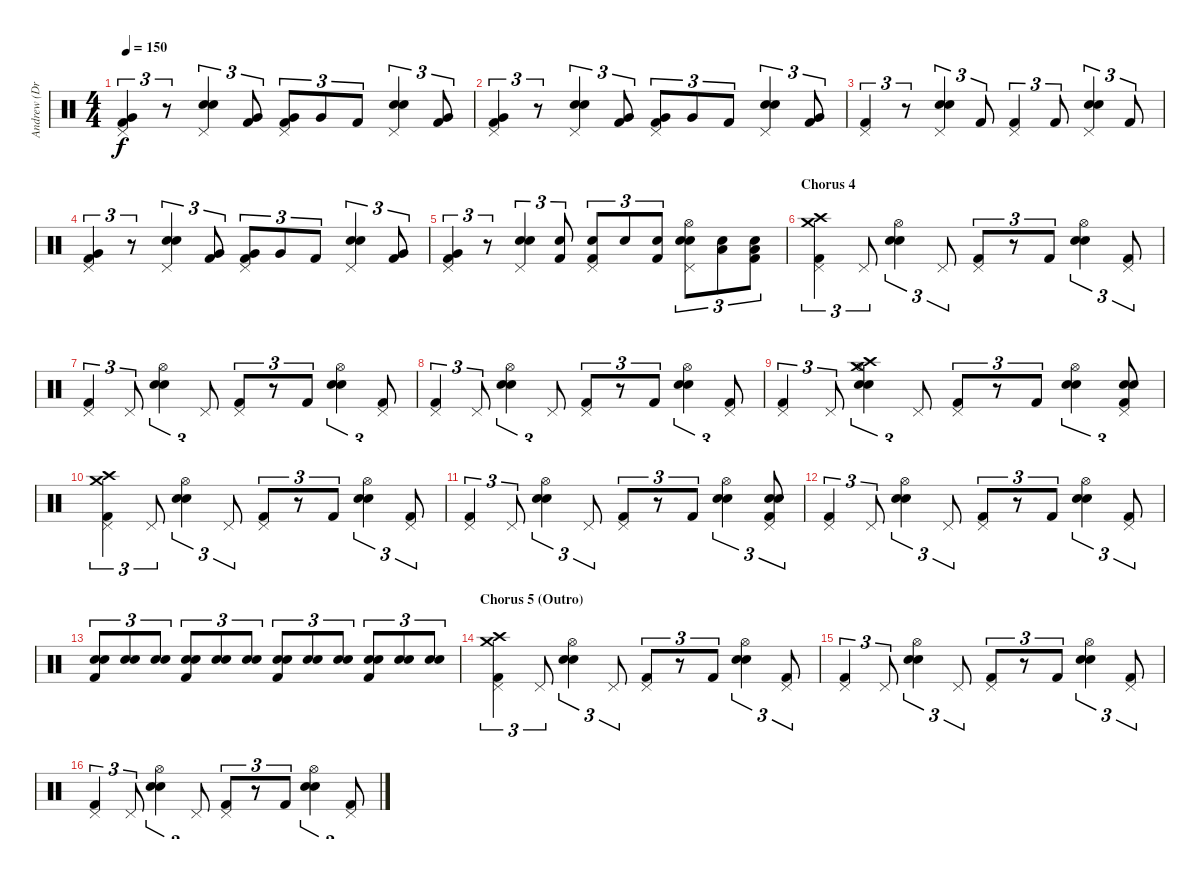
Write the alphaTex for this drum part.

\track ("Andrew (Drums)" "Andrew (Dr") {instrument percussion}
\staff {score}
\articulation defaults
\ts (4 4)
\tempo 150
\clef neutral
\ks c
("Kick (hit) 2" "Pedal Hi-Hat (hit)" "Very Low Tom (hit)").4{tu (3 2) dy f} r.8{tu (3 2)} ("Electric Snare (hit)" "Snare (hit) 2" "Pedal Hi-Hat (hit)").4{tu (3 2)} ("Kick (hit) 2" "Very Low Tom (hit)").8{tu (3 2)} ("Kick (hit) 2" "Pedal Hi-Hat (hit)" "Very Low Tom (hit)").8{tu (3 2)} "Very Low Tom (hit)".8{tu (3 2)} "Kick (hit) 2".8{tu (3 2)} ("Electric Snare (hit)" "Snare (hit) 2" "Pedal Hi-Hat (hit)").4{tu (3 2)} ("Kick (hit) 2" "Very Low Tom (hit)").8{tu (3 2)} |
("Kick (hit) 2" "Pedal Hi-Hat (hit)" "Very Low Tom (hit)").4{tu (3 2)} r.8{tu (3 2)} ("Electric Snare (hit)" "Snare (hit) 2" "Pedal Hi-Hat (hit)").4{tu (3 2)} ("Kick (hit) 2" "Very Low Tom (hit)").8{tu (3 2)} ("Kick (hit) 2" "Pedal Hi-Hat (hit)" "Very Low Tom (hit)").8{tu (3 2)} "Very Low Tom (hit)".8{tu (3 2)} "Kick (hit) 2".8{tu (3 2)} ("Electric Snare (hit)" "Snare (hit) 2" "Pedal Hi-Hat (hit)").4{tu (3 2)} ("Kick (hit) 2" "Very Low Tom (hit)").8{tu (3 2)} |
("Kick (hit) 2" "Pedal Hi-Hat (hit)").4{tu (3 2)} r.8{tu (3 2)} ("Electric Snare (hit)" "Snare (hit) 2" "Pedal Hi-Hat (hit)").4{tu (3 2)} "Kick (hit) 2".8{tu (3 2)} ("Kick (hit) 2" "Pedal Hi-Hat (hit)").4{tu (3 2)} "Kick (hit) 2".8{tu (3 2)} ("Electric Snare (hit)" "Snare (hit) 2" "Pedal Hi-Hat (hit)").4{tu (3 2)} "Kick (hit) 2".8{tu (3 2)} |
("Kick (hit) 2" "Pedal Hi-Hat (hit)" "Very Low Tom (hit)").4{tu (3 2)} r.8{tu (3 2)} ("Electric Snare (hit)" "Snare (hit) 2" "Pedal Hi-Hat (hit)").4{tu (3 2)} ("Kick (hit) 2" "Very Low Tom (hit)").8{tu (3 2)} ("Kick (hit) 2" "Pedal Hi-Hat (hit)" "Very Low Tom (hit)").8{tu (3 2)} "Very Low Tom (hit)".8{tu (3 2)} "Kick (hit) 2".8{tu (3 2)} ("Electric Snare (hit)" "Snare (hit) 2" "Pedal Hi-Hat (hit)").4{tu (3 2)} ("Kick (hit) 2" "Very Low Tom (hit)").8{tu (3 2)} |
("Kick (hit) 2" "Pedal Hi-Hat (hit)" "Very Low Tom (hit)").4{tu (3 2)} r.8{tu (3 2)} ("Electric Snare (hit)" "Snare (hit) 2" "Pedal Hi-Hat (hit)").4{tu (3 2)} ("Kick (hit) 2" "Electric Snare (hit)").8{tu (3 2)} ("Kick (hit) 2" "Pedal Hi-Hat (hit)" "Electric Snare (hit)").8{tu (3 2)} "Electric Snare (hit)".8{tu (3 2)} ("Kick (hit) 2" "Electric Snare (hit)").8{tu (3 2)} ("Electric Snare (hit)" "Snare (hit) 2" "Pedal Hi-Hat (hit)" "Hi-Hat (open)").8{tu (3 2)} ("Electric Snare (hit)" "Low Tom (hit)").8{tu (3 2)} ("Kick (hit) 2" "Electric Snare (hit)" "Low Floor Tom (hit)").8{tu (3 2)} |
\section ("" "Chorus 4")
("Kick (hit) 2" "Pedal Hi-Hat (hit)" "Crash medium (hit)" "Crash high (hit)").4{tu (3 2)} "Pedal Hi-Hat (hit)".8{tu (3 2)} ("Electric Snare (hit)" "Snare (hit) 2" "Hi-Hat (open)").4{tu (3 2)} "Pedal Hi-Hat (hit)".8{tu (3 2)} ("Kick (hit) 2" "Pedal Hi-Hat (hit)").8{tu (3 2)} r.8{tu (3 2)} "Kick (hit) 2".8{tu (3 2)} ("Electric Snare (hit)" "Snare (hit) 2" "Hi-Hat (open)").4{tu (3 2)} ("Kick (hit) 2" "Pedal Hi-Hat (hit)").8{tu (3 2)} |
("Kick (hit) 2" "Pedal Hi-Hat (hit)").4{tu (3 2)} "Pedal Hi-Hat (hit)".8{tu (3 2)} ("Electric Snare (hit)" "Snare (hit) 2" "Hi-Hat (open)").4{tu (3 2)} "Pedal Hi-Hat (hit)".8{tu (3 2)} ("Kick (hit) 2" "Pedal Hi-Hat (hit)").8{tu (3 2)} r.8{tu (3 2)} "Kick (hit) 2".8{tu (3 2)} ("Electric Snare (hit)" "Snare (hit) 2" "Hi-Hat (open)").4{tu (3 2)} ("Kick (hit) 2" "Pedal Hi-Hat (hit)").8{tu (3 2)} |
("Kick (hit) 2" "Pedal Hi-Hat (hit)").4{tu (3 2)} "Pedal Hi-Hat (hit)".8{tu (3 2)} ("Electric Snare (hit)" "Snare (hit) 2" "Hi-Hat (open)").4{tu (3 2)} "Pedal Hi-Hat (hit)".8{tu (3 2)} ("Kick (hit) 2" "Pedal Hi-Hat (hit)").8{tu (3 2)} r.8{tu (3 2)} "Kick (hit) 2".8{tu (3 2)} ("Electric Snare (hit)" "Snare (hit) 2" "Hi-Hat (open)").4{tu (3 2)} ("Kick (hit) 2" "Pedal Hi-Hat (hit)").8{tu (3 2)} |
("Kick (hit) 2" "Pedal Hi-Hat (hit)").4{tu (3 2)} "Pedal Hi-Hat (hit)".8{tu (3 2)} ("Electric Snare (hit)" "Snare (hit) 2" "Hi-Hat (open)" "Crash medium (hit)" "Crash high (hit)").4{tu (3 2)} "Pedal Hi-Hat (hit)".8{tu (3 2)} ("Kick (hit) 2" "Pedal Hi-Hat (hit)").8{tu (3 2)} r.8{tu (3 2)} "Kick (hit) 2".8{tu (3 2)} ("Electric Snare (hit)" "Snare (hit) 2" "Hi-Hat (open)").4{tu (3 2)} ("Kick (hit) 2" "Electric Snare (hit)" "Pedal Hi-Hat (hit)" "Snare (hit) 2").8{tu (3 2)} |
("Kick (hit) 2" "Pedal Hi-Hat (hit)" "Crash medium (hit)" "Crash high (hit)").4{tu (3 2)} "Pedal Hi-Hat (hit)".8{tu (3 2)} ("Electric Snare (hit)" "Snare (hit) 2" "Hi-Hat (open)").4{tu (3 2)} "Pedal Hi-Hat (hit)".8{tu (3 2)} ("Kick (hit) 2" "Pedal Hi-Hat (hit)").8{tu (3 2)} r.8{tu (3 2)} "Kick (hit) 2".8{tu (3 2)} ("Electric Snare (hit)" "Snare (hit) 2" "Hi-Hat (open)").4{tu (3 2)} ("Kick (hit) 2" "Pedal Hi-Hat (hit)").8{tu (3 2)} |
("Kick (hit) 2" "Pedal Hi-Hat (hit)").4{tu (3 2)} "Pedal Hi-Hat (hit)".8{tu (3 2)} ("Electric Snare (hit)" "Snare (hit) 2" "Hi-Hat (open)").4{tu (3 2)} "Pedal Hi-Hat (hit)".8{tu (3 2)} ("Kick (hit) 2" "Pedal Hi-Hat (hit)").8{tu (3 2)} r.8{tu (3 2)} "Kick (hit) 2".8{tu (3 2)} ("Electric Snare (hit)" "Snare (hit) 2" "Hi-Hat (open)").4{tu (3 2)} ("Kick (hit) 2" "Electric Snare (hit)" "Pedal Hi-Hat (hit)" "Snare (hit) 2").8{tu (3 2)} |
("Kick (hit) 2" "Pedal Hi-Hat (hit)").4{tu (3 2)} "Pedal Hi-Hat (hit)".8{tu (3 2)} ("Electric Snare (hit)" "Snare (hit) 2" "Hi-Hat (open)").4{tu (3 2)} "Pedal Hi-Hat (hit)".8{tu (3 2)} ("Kick (hit) 2" "Pedal Hi-Hat (hit)").8{tu (3 2)} r.8{tu (3 2)} "Kick (hit) 2".8{tu (3 2)} ("Electric Snare (hit)" "Snare (hit) 2" "Hi-Hat (open)").4{tu (3 2)} ("Kick (hit) 2" "Pedal Hi-Hat (hit)").8{tu (3 2)} |
("Electric Snare (hit)" "Snare (hit) 2" "Kick (hit) 2").8{tu (3 2)} ("Electric Snare (hit)" "Snare (hit) 2").8{tu (3 2)} ("Electric Snare (hit)" "Snare (hit) 2").8{tu (3 2)} ("Electric Snare (hit)" "Snare (hit) 2" "Kick (hit) 2").8{tu (3 2)} ("Electric Snare (hit)" "Snare (hit) 2").8{tu (3 2)} ("Electric Snare (hit)" "Snare (hit) 2").8{tu (3 2)} ("Electric Snare (hit)" "Snare (hit) 2" "Kick (hit) 2").8{tu (3 2)} ("Electric Snare (hit)" "Snare (hit) 2").8{tu (3 2)} ("Electric Snare (hit)" "Snare (hit) 2").8{tu (3 2)} ("Electric Snare (hit)" "Snare (hit) 2" "Kick (hit) 2").8{tu (3 2)} ("Electric Snare (hit)" "Snare (hit) 2").8{tu (3 2)} ("Electric Snare (hit)" "Snare (hit) 2").8{tu (3 2)} |
\section ("" "Chorus 5 (Outro)")
("Kick (hit) 2" "Pedal Hi-Hat (hit)" "Crash medium (hit)" "Crash high (hit)").4{tu (3 2)} "Pedal Hi-Hat (hit)".8{tu (3 2)} ("Electric Snare (hit)" "Snare (hit) 2" "Hi-Hat (open)").4{tu (3 2)} "Pedal Hi-Hat (hit)".8{tu (3 2)} ("Kick (hit) 2" "Pedal Hi-Hat (hit)").8{tu (3 2)} r.8{tu (3 2)} "Kick (hit) 2".8{tu (3 2)} ("Electric Snare (hit)" "Snare (hit) 2" "Hi-Hat (open)").4{tu (3 2)} ("Kick (hit) 2" "Pedal Hi-Hat (hit)").8{tu (3 2)} |
("Kick (hit) 2" "Pedal Hi-Hat (hit)").4{tu (3 2)} "Pedal Hi-Hat (hit)".8{tu (3 2)} ("Electric Snare (hit)" "Snare (hit) 2" "Hi-Hat (open)").4{tu (3 2)} "Pedal Hi-Hat (hit)".8{tu (3 2)} ("Kick (hit) 2" "Pedal Hi-Hat (hit)").8{tu (3 2)} r.8{tu (3 2)} "Kick (hit) 2".8{tu (3 2)} ("Electric Snare (hit)" "Snare (hit) 2" "Hi-Hat (open)").4{tu (3 2)} ("Kick (hit) 2" "Pedal Hi-Hat (hit)").8{tu (3 2)} |
("Kick (hit) 2" "Pedal Hi-Hat (hit)").4{tu (3 2)} "Pedal Hi-Hat (hit)".8{tu (3 2)} ("Electric Snare (hit)" "Snare (hit) 2" "Hi-Hat (open)").4{tu (3 2)} "Pedal Hi-Hat (hit)".8{tu (3 2)} ("Kick (hit) 2" "Pedal Hi-Hat (hit)").8{tu (3 2)} r.8{tu (3 2)} "Kick (hit) 2".8{tu (3 2)} ("Electric Snare (hit)" "Snare (hit) 2" "Hi-Hat (open)").4{tu (3 2)} ("Kick (hit) 2" "Pedal Hi-Hat (hit)").8{tu (3 2)}
